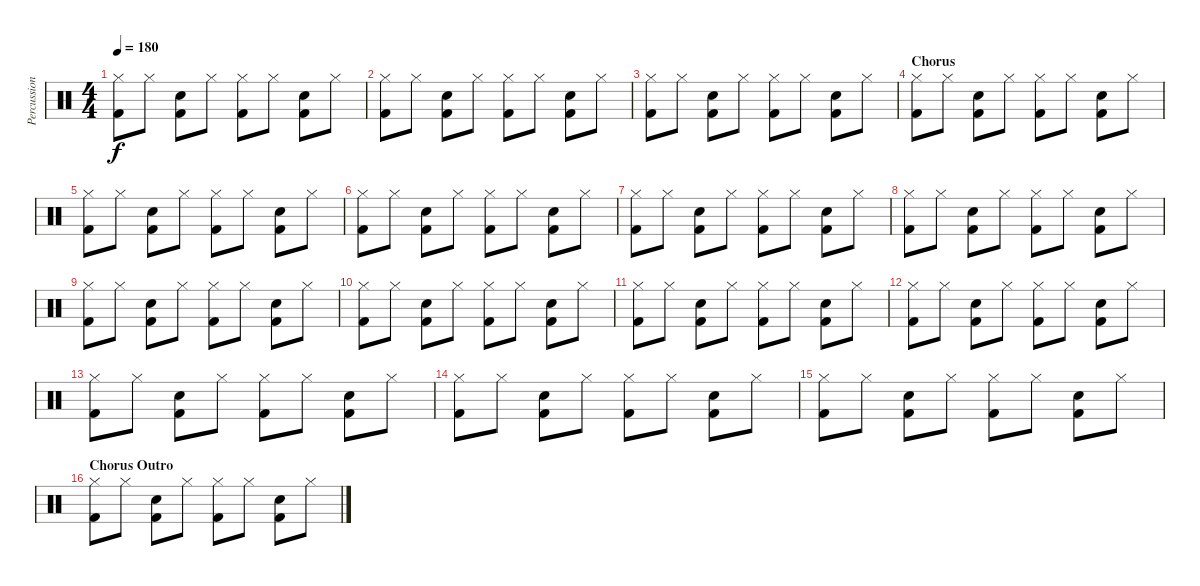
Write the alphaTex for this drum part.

\track ("Percussion" "Percussion") {instrument percussion}
\staff {score}
\articulation defaults
\ts (4 4)
\tempo 180
\clef neutral
\ks c
("Kick (hit) 2" "Hi-Hat (closed)").8{dy f} "Hi-Hat (closed)".8 ("Kick (hit) 2" "Snare (hit) 2").8 "Hi-Hat (closed)".8 ("Kick (hit) 2" "Hi-Hat (closed)").8 "Hi-Hat (closed)".8 ("Kick (hit) 2" "Electric Snare (hit)").8 "Hi-Hat (closed)".8 |
("Kick (hit) 2" "Hi-Hat (closed)").8 "Hi-Hat (closed)".8 ("Kick (hit) 2" "Snare (hit) 2").8 "Hi-Hat (closed)".8 ("Kick (hit) 2" "Hi-Hat (closed)").8 "Hi-Hat (closed)".8 ("Kick (hit) 2" "Electric Snare (hit)").8 "Hi-Hat (closed)".8 |
("Kick (hit) 2" "Hi-Hat (closed)").8 "Hi-Hat (closed)".8 ("Kick (hit) 2" "Snare (hit) 2").8 "Hi-Hat (closed)".8 ("Kick (hit) 2" "Hi-Hat (closed)").8 "Hi-Hat (closed)".8 ("Kick (hit) 2" "Electric Snare (hit)").8 "Hi-Hat (closed)".8 |
\section ("" "Chorus")
("Kick (hit) 2" "Hi-Hat (closed)").8 "Hi-Hat (closed)".8 ("Kick (hit) 2" "Snare (hit) 2").8 "Hi-Hat (closed)".8 ("Kick (hit) 2" "Hi-Hat (closed)").8 "Hi-Hat (closed)".8 ("Kick (hit) 2" "Electric Snare (hit)").8 "Hi-Hat (closed)".8 |
("Kick (hit) 2" "Hi-Hat (closed)").8 "Hi-Hat (closed)".8 ("Kick (hit) 2" "Snare (hit) 2").8 "Hi-Hat (closed)".8 ("Kick (hit) 2" "Hi-Hat (closed)").8 "Hi-Hat (closed)".8 ("Kick (hit) 2" "Electric Snare (hit)").8 "Hi-Hat (closed)".8 |
("Kick (hit) 2" "Hi-Hat (closed)").8 "Hi-Hat (closed)".8 ("Kick (hit) 2" "Snare (hit) 2").8 "Hi-Hat (closed)".8 ("Kick (hit) 2" "Hi-Hat (closed)").8 "Hi-Hat (closed)".8 ("Kick (hit) 2" "Electric Snare (hit)").8 "Hi-Hat (closed)".8 |
("Kick (hit) 2" "Hi-Hat (closed)").8 "Hi-Hat (closed)".8 ("Kick (hit) 2" "Snare (hit) 2").8 "Hi-Hat (closed)".8 ("Kick (hit) 2" "Hi-Hat (closed)").8 "Hi-Hat (closed)".8 ("Kick (hit) 2" "Electric Snare (hit)").8 "Hi-Hat (closed)".8 |
("Kick (hit) 2" "Hi-Hat (closed)").8 "Hi-Hat (closed)".8 ("Kick (hit) 2" "Snare (hit) 2").8 "Hi-Hat (closed)".8 ("Kick (hit) 2" "Hi-Hat (closed)").8 "Hi-Hat (closed)".8 ("Kick (hit) 2" "Electric Snare (hit)").8 "Hi-Hat (closed)".8 |
("Kick (hit) 2" "Hi-Hat (closed)").8 "Hi-Hat (closed)".8 ("Kick (hit) 2" "Snare (hit) 2").8 "Hi-Hat (closed)".8 ("Kick (hit) 2" "Hi-Hat (closed)").8 "Hi-Hat (closed)".8 ("Kick (hit) 2" "Electric Snare (hit)").8 "Hi-Hat (closed)".8 |
("Kick (hit) 2" "Hi-Hat (closed)").8 "Hi-Hat (closed)".8 ("Kick (hit) 2" "Snare (hit) 2").8 "Hi-Hat (closed)".8 ("Kick (hit) 2" "Hi-Hat (closed)").8 "Hi-Hat (closed)".8 ("Kick (hit) 2" "Electric Snare (hit)").8 "Hi-Hat (closed)".8 |
("Kick (hit) 2" "Hi-Hat (closed)").8 "Hi-Hat (closed)".8 ("Kick (hit) 2" "Snare (hit) 2").8 "Hi-Hat (closed)".8 ("Kick (hit) 2" "Hi-Hat (closed)").8 "Hi-Hat (closed)".8 ("Kick (hit) 2" "Electric Snare (hit)").8 "Hi-Hat (closed)".8 |
("Kick (hit) 2" "Hi-Hat (closed)").8 "Hi-Hat (closed)".8 ("Kick (hit) 2" "Snare (hit) 2").8 "Hi-Hat (closed)".8 ("Kick (hit) 2" "Hi-Hat (closed)").8 "Hi-Hat (closed)".8 ("Kick (hit) 2" "Electric Snare (hit)").8 "Hi-Hat (closed)".8 |
("Kick (hit) 2" "Hi-Hat (closed)").8 "Hi-Hat (closed)".8 ("Kick (hit) 2" "Snare (hit) 2").8 "Hi-Hat (closed)".8 ("Kick (hit) 2" "Hi-Hat (closed)").8 "Hi-Hat (closed)".8 ("Kick (hit) 2" "Electric Snare (hit)").8 "Hi-Hat (closed)".8 |
("Kick (hit) 2" "Hi-Hat (closed)").8 "Hi-Hat (closed)".8 ("Kick (hit) 2" "Snare (hit) 2").8 "Hi-Hat (closed)".8 ("Kick (hit) 2" "Hi-Hat (closed)").8 "Hi-Hat (closed)".8 ("Kick (hit) 2" "Electric Snare (hit)").8 "Hi-Hat (closed)".8 |
("Kick (hit) 2" "Hi-Hat (closed)").8 "Hi-Hat (closed)".8 ("Kick (hit) 2" "Snare (hit) 2").8 "Hi-Hat (closed)".8 ("Kick (hit) 2" "Hi-Hat (closed)").8 "Hi-Hat (closed)".8 ("Kick (hit) 2" "Electric Snare (hit)").8 "Hi-Hat (closed)".8 |
\section ("" "Chorus Outro")
("Kick (hit) 2" "Hi-Hat (closed)").8 "Hi-Hat (closed)".8 ("Kick (hit) 2" "Snare (hit) 2").8 "Hi-Hat (closed)".8 ("Kick (hit) 2" "Hi-Hat (closed)").8 "Hi-Hat (closed)".8 ("Kick (hit) 2" "Electric Snare (hit)").8 "Hi-Hat (closed)".8
